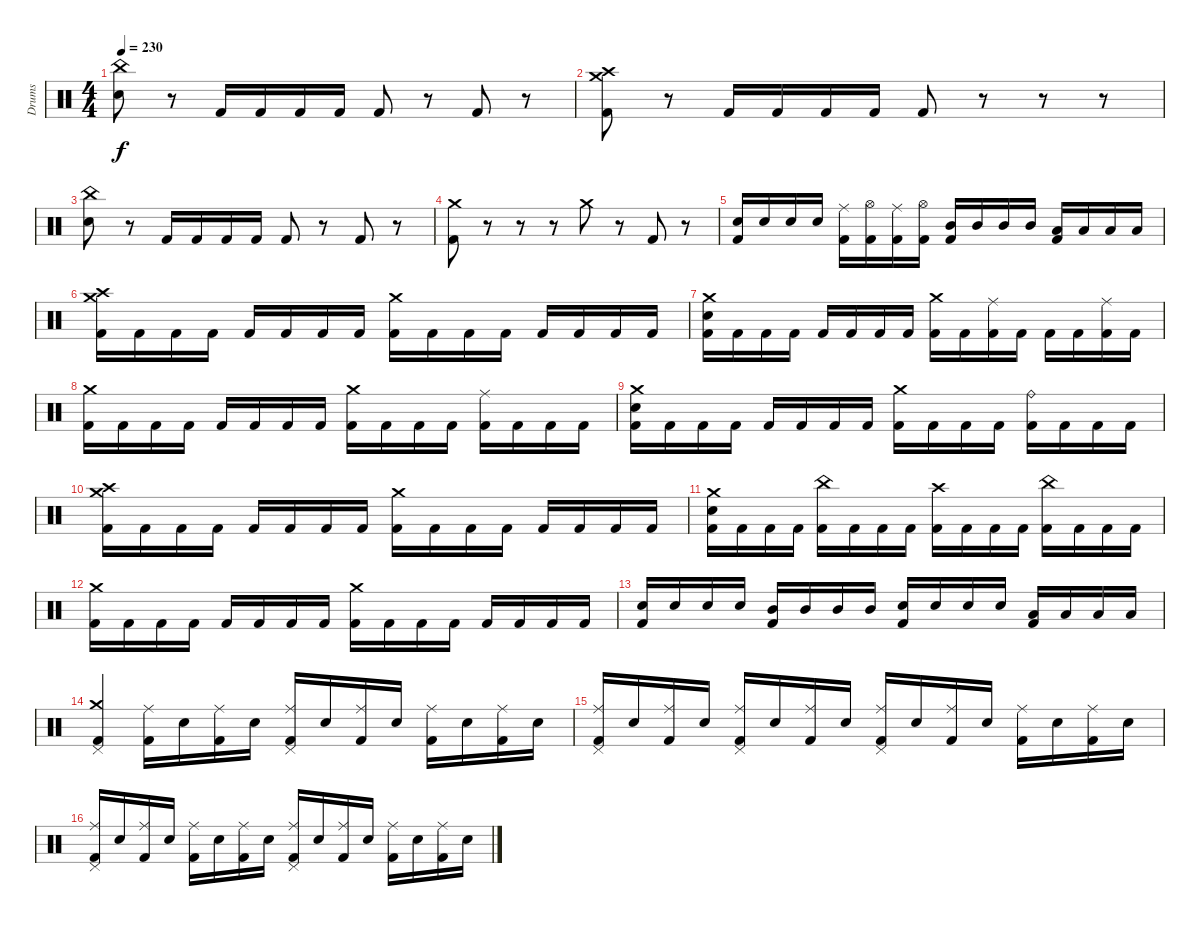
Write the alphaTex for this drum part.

\track ("Drums" "Drums") {instrument percussion}
\staff {score}
\articulation defaults
\ts (4 4)
\tempo 230
\clef neutral
\ks c
("China (hit)" "Electric Snare (hit)").8{dy f} r.8 "Kick (hit) 2".16 "Kick (hit) 2".16 "Kick (hit) 2".16 "Kick (hit) 2".16 "Kick (hit) 2".8 r.8 "Kick (hit) 2".8 r.8 |
("Crash medium (hit)" "Crash high (hit)" "Kick (hit) 2").8 r.8 "Kick (hit) 2".16 "Kick (hit) 2".16 "Kick (hit) 2".16 "Kick (hit) 2".16 "Kick (hit) 2".8 r.8 r.8 r.8 |
("China (hit)" "Electric Snare (hit)").8 r.8 "Kick (hit) 2".16 "Kick (hit) 2".16 "Kick (hit) 2".16 "Kick (hit) 2".16 "Kick (hit) 2".8 r.8 "Kick (hit) 2".8 r.8 |
("Crash medium (hit)" "Kick (hit) 2").8 r.8 r.8 r.8 "Crash medium (hit)".8 r.8 "Kick (hit) 2".8 r.8 |
("Electric Snare (hit)" "Kick (hit) 2").16 "Electric Snare (hit)".16 "Electric Snare (hit)".16 "Electric Snare (hit)".16 ("Ride (middle)" "Kick (hit) 2").16 ("Hi-Hat (open)" "Kick (hit) 2").16 ("Ride (middle)" "Kick (hit) 2").16 ("Hi-Hat (open)" "Kick (hit) 2").16 ("Mid Tom (hit)" "Kick (hit) 2").16 "Mid Tom (hit)".16 "Mid Tom (hit)".16 "Mid Tom (hit)".16 ("Low Tom (hit)" "Kick (hit) 2").16 "Low Tom (hit)".16 "Low Tom (hit)".16 "Low Tom (hit)".16 |
("Crash medium (hit)" "Crash high (hit)" "Kick (hit) 2").16 "Kick (hit) 2".16 "Kick (hit) 2".16 "Kick (hit) 2".16 "Kick (hit) 2".16 "Kick (hit) 2".16 "Kick (hit) 2".16 "Kick (hit) 2".16 ("Crash medium (hit)" "Kick (hit) 2").16 "Kick (hit) 2".16 "Kick (hit) 2".16 "Kick (hit) 2".16 "Kick (hit) 2".16 "Kick (hit) 2".16 "Kick (hit) 2".16 "Kick (hit) 2".16 |
("Crash medium (hit)" "Electric Snare (hit)" "Kick (hit) 2").16 "Kick (hit) 2".16 "Kick (hit) 2".16 "Kick (hit) 2".16 "Kick (hit) 2".16 "Kick (hit) 2".16 "Kick (hit) 2".16 "Kick (hit) 2".16 ("Crash medium (hit)" "Kick (hit) 2").16 "Kick (hit) 2".16 ("Ride (middle)" "Kick (hit) 2").16 "Kick (hit) 2".16 "Kick (hit) 2".16 "Kick (hit) 2".16 ("Ride (middle)" "Kick (hit) 2").16 "Kick (hit) 2".16 |
("Crash medium (hit)" "Kick (hit) 2").16 "Kick (hit) 2".16 "Kick (hit) 2".16 "Kick (hit) 2".16 "Kick (hit) 2".16 "Kick (hit) 2".16 "Kick (hit) 2".16 "Kick (hit) 2".16 ("Crash medium (hit)" "Kick (hit) 2").16 "Kick (hit) 2".16 "Kick (hit) 2".16 "Kick (hit) 2".16 ("Ride (middle)" "Kick (hit) 2").16 "Kick (hit) 2".16 "Kick (hit) 2".16 "Kick (hit) 2".16 |
("Crash medium (hit)" "Electric Snare (hit)" "Kick (hit) 2").16 "Kick (hit) 2".16 "Kick (hit) 2".16 "Kick (hit) 2".16 "Kick (hit) 2".16 "Kick (hit) 2".16 "Kick (hit) 2".16 "Kick (hit) 2".16 ("Crash medium (hit)" "Kick (hit) 2").16 "Kick (hit) 2".16 "Kick (hit) 2".16 "Kick (hit) 2".16 ("Ride (bell)" "Kick (hit) 2").16 "Kick (hit) 2".16 "Kick (hit) 2".16 "Kick (hit) 2".16 |
("Crash medium (hit)" "Crash high (hit)" "Kick (hit) 2").16 "Kick (hit) 2".16 "Kick (hit) 2".16 "Kick (hit) 2".16 "Kick (hit) 2".16 "Kick (hit) 2".16 "Kick (hit) 2".16 "Kick (hit) 2".16 ("Crash medium (hit)" "Kick (hit) 2").16 "Kick (hit) 2".16 "Kick (hit) 2".16 "Kick (hit) 2".16 "Kick (hit) 2".16 "Kick (hit) 2".16 "Kick (hit) 2".16 "Kick (hit) 2".16 |
("Crash medium (hit)" "Electric Snare (hit)" "Kick (hit) 2").16 "Kick (hit) 2".16 "Kick (hit) 2".16 "Kick (hit) 2".16 ("China (hit)" "Kick (hit) 2").16 "Kick (hit) 2".16 "Kick (hit) 2".16 "Kick (hit) 2".16 ("Crash high (hit)" "Kick (hit) 2").16 "Kick (hit) 2".16 "Kick (hit) 2".16 "Kick (hit) 2".16 ("China (hit)" "Kick (hit) 2").16 "Kick (hit) 2".16 "Kick (hit) 2".16 "Kick (hit) 2".16 |
("Crash medium (hit)" "Kick (hit) 2").16 "Kick (hit) 2".16 "Kick (hit) 2".16 "Kick (hit) 2".16 "Kick (hit) 2".16 "Kick (hit) 2".16 "Kick (hit) 2".16 "Kick (hit) 2".16 ("Crash medium (hit)" "Kick (hit) 2").16 "Kick (hit) 2".16 "Kick (hit) 2".16 "Kick (hit) 2".16 "Kick (hit) 2".16 "Kick (hit) 2".16 "Kick (hit) 2".16 "Kick (hit) 2".16 |
("Electric Snare (hit)" "Kick (hit) 2").16 "Electric Snare (hit)".16 "Electric Snare (hit)".16 "Electric Snare (hit)".16 ("Mid Tom (hit)" "Kick (hit) 2").16 "Mid Tom (hit)".16 "Mid Tom (hit)".16 "Mid Tom (hit)".16 ("Electric Snare (hit)" "Kick (hit) 2").16 "Electric Snare (hit)".16 "Electric Snare (hit)".16 "Electric Snare (hit)".16 ("Low Tom (hit)" "Kick (hit) 2").16 "Low Tom (hit)".16 "Low Tom (hit)".16 "Low Tom (hit)".16 |
("Pedal Hi-Hat (hit)" "Crash medium (hit)" "Kick (hit) 2").4 ("Ride (middle)" "Kick (hit) 2").16 "Electric Snare (hit)".16 ("Ride (middle)" "Kick (hit) 2").16 "Electric Snare (hit)".16 ("Pedal Hi-Hat (hit)" "Ride (middle)" "Kick (hit) 2").16 "Electric Snare (hit)".16 ("Ride (middle)" "Kick (hit) 2").16 "Electric Snare (hit)".16 ("Ride (middle)" "Kick (hit) 2").16 "Electric Snare (hit)".16 ("Ride (middle)" "Kick (hit) 2").16 "Electric Snare (hit)".16 |
("Pedal Hi-Hat (hit)" "Ride (middle)" "Kick (hit) 2").16 "Electric Snare (hit)".16 ("Ride (middle)" "Kick (hit) 2").16 "Electric Snare (hit)".16 ("Pedal Hi-Hat (hit)" "Ride (middle)" "Kick (hit) 2").16 "Electric Snare (hit)".16 ("Ride (middle)" "Kick (hit) 2").16 "Electric Snare (hit)".16 ("Pedal Hi-Hat (hit)" "Ride (middle)" "Kick (hit) 2").16 "Electric Snare (hit)".16 ("Ride (middle)" "Kick (hit) 2").16 "Electric Snare (hit)".16 ("Ride (middle)" "Kick (hit) 2").16 "Electric Snare (hit)".16 ("Ride (middle)" "Kick (hit) 2").16 "Electric Snare (hit)".16 |
("Pedal Hi-Hat (hit)" "Ride (middle)" "Kick (hit) 2").16 "Electric Snare (hit)".16 ("Ride (middle)" "Kick (hit) 2").16 "Electric Snare (hit)".16 ("Ride (middle)" "Kick (hit) 2").16 "Electric Snare (hit)".16 ("Ride (middle)" "Kick (hit) 2").16 "Electric Snare (hit)".16 ("Pedal Hi-Hat (hit)" "Ride (middle)" "Kick (hit) 2").16 "Electric Snare (hit)".16 ("Ride (middle)" "Kick (hit) 2").16 "Electric Snare (hit)".16 ("Ride (middle)" "Kick (hit) 2").16 "Electric Snare (hit)".16 ("Ride (middle)" "Kick (hit) 2").16 "Electric Snare (hit)".16
